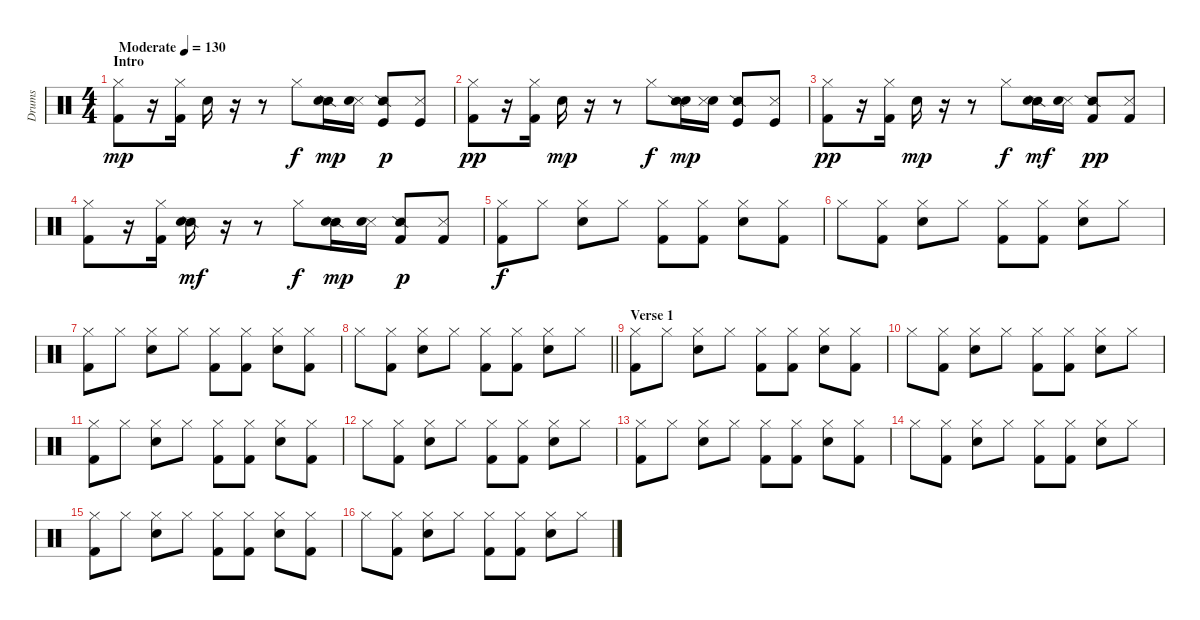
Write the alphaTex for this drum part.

\track ("Drums" "Drums") {instrument percussion}
\staff {score}
\articulation defaults
\ts (4 4)
\section ("" "Intro")
\tempo (130 "Moderate")
\clef neutral
\ks c
("Hi-Hat (closed)" "Kick (hit) 2").8{dy mp volume 2} r.16 ("Hi-Hat (closed)" "Kick (hit) 2").16{volume 13} "Electric Snare (hit)".16 r.16 r.8 "Hi-Hat (closed)".8{dy f} ("Snare (side stick) 2" "Electric Snare (hit)").16{dy mp} ("Snare (side stick) 3" "Electric Snare (hit)").16 ("Snare (side stick) 2" "Kick (hit)").8{dy p} ("Snare (side stick) 3" "Kick (hit)").8 |
("Hi-Hat (closed)" "Kick (hit) 2").8{dy pp} r.16 ("Hi-Hat (closed)" "Kick (hit) 2").16 "Electric Snare (hit)".16{dy mp} r.16 r.8 "Hi-Hat (closed)".8{dy f} ("Electric Snare (hit)" "Snare (side stick) 2").16{dy mp} ("Electric Snare (hit)" "Snare (side stick) 3").16 ("Kick (hit)" "Snare (side stick) 2").8 ("Kick (hit)" "Snare (side stick) 3").8 |
("Hi-Hat (closed)" "Kick (hit) 2").8{dy pp} r.16 ("Hi-Hat (closed)" "Kick (hit) 2").16 "Electric Snare (hit)".16{dy mp} r.16 r.8 "Hi-Hat (closed)".8{dy f} ("Snare (side stick) 2" "Electric Snare (hit)").16{dy mf} ("Metronome (hit)" "Electric Snare (hit)").16 ("Snare (side stick) 2" "Kick (hit) 2").8{dy pp} ("Metronome (hit)" "Kick (hit) 2").8 |
("Hi-Hat (closed)" "Kick (hit) 2").8 r.16 ("Hi-Hat (closed)" "Kick (hit) 2").16 ("Snare (side stick) 2" "Electric Snare (hit)").16{dy mf} r.16 r.8 "Hi-Hat (closed)".8{dy f} ("Snare (side stick) 2" "Electric Snare (hit)").16{dy mp} ("Snare (side stick) 3" "Electric Snare (hit)").16 ("Snare (side stick) 2" "Kick (hit) 2").8{dy p} ("Snare (side stick) 3" "Kick (hit) 2").8 |
("Hi-Hat (closed)" "Kick (hit) 2").8{dy f} "Hi-Hat (closed)".8 ("Hi-Hat (closed)" "Electric Snare (hit)").8 "Hi-Hat (closed)".8 ("Hi-Hat (closed)" "Kick (hit) 2").8 ("Hi-Hat (closed)" "Kick (hit) 2").8 ("Hi-Hat (closed)" "Electric Snare (hit)").8 ("Hi-Hat (closed)" "Kick (hit) 2").8 |
"Hi-Hat (closed)".8 ("Hi-Hat (closed)" "Kick (hit) 2").8 ("Hi-Hat (closed)" "Electric Snare (hit)").8 "Hi-Hat (closed)".8 ("Hi-Hat (closed)" "Kick (hit) 2").8 ("Hi-Hat (closed)" "Kick (hit) 2").8 ("Hi-Hat (closed)" "Electric Snare (hit)").8 "Hi-Hat (closed)".8 |
("Hi-Hat (closed)" "Kick (hit) 2").8 "Hi-Hat (closed)".8 ("Hi-Hat (closed)" "Electric Snare (hit)").8 "Hi-Hat (closed)".8 ("Hi-Hat (closed)" "Kick (hit) 2").8 ("Hi-Hat (closed)" "Kick (hit) 2").8 ("Hi-Hat (closed)" "Electric Snare (hit)").8 ("Hi-Hat (closed)" "Kick (hit) 2").8 |
\barLineRight lightlight "Hi-Hat (closed)".8
("Hi-Hat (closed)" "Kick (hit) 2").8 ("Hi-Hat (closed)" "Electric Snare (hit)").8 "Hi-Hat (closed)".8 ("Hi-Hat (closed)" "Kick (hit) 2").8 ("Hi-Hat (closed)" "Kick (hit) 2").8 ("Hi-Hat (closed)" "Electric Snare (hit)").8 "Hi-Hat (closed)".8 |
\section ("" "Verse 1")
("Hi-Hat (closed)" "Kick (hit) 2").8 "Hi-Hat (closed)".8 ("Hi-Hat (closed)" "Electric Snare (hit)").8 "Hi-Hat (closed)".8 ("Hi-Hat (closed)" "Kick (hit) 2").8 ("Hi-Hat (closed)" "Kick (hit) 2").8 ("Hi-Hat (closed)" "Electric Snare (hit)").8 ("Hi-Hat (closed)" "Kick (hit) 2").8 |
"Hi-Hat (closed)".8 ("Hi-Hat (closed)" "Kick (hit) 2").8 ("Hi-Hat (closed)" "Electric Snare (hit)").8 "Hi-Hat (closed)".8 ("Hi-Hat (closed)" "Kick (hit) 2").8 ("Hi-Hat (closed)" "Kick (hit) 2").8 ("Hi-Hat (closed)" "Electric Snare (hit)").8 "Hi-Hat (closed)".8 |
("Hi-Hat (closed)" "Kick (hit) 2").8 "Hi-Hat (closed)".8 ("Hi-Hat (closed)" "Electric Snare (hit)").8 "Hi-Hat (closed)".8 ("Hi-Hat (closed)" "Kick (hit) 2").8 ("Hi-Hat (closed)" "Kick (hit) 2").8 ("Hi-Hat (closed)" "Electric Snare (hit)").8 ("Hi-Hat (closed)" "Kick (hit) 2").8 |
"Hi-Hat (closed)".8 ("Hi-Hat (closed)" "Kick (hit) 2").8 ("Hi-Hat (closed)" "Electric Snare (hit)").8 "Hi-Hat (closed)".8 ("Hi-Hat (closed)" "Kick (hit) 2").8 ("Hi-Hat (closed)" "Kick (hit) 2").8 ("Hi-Hat (closed)" "Electric Snare (hit)").8 "Hi-Hat (closed)".8 |
("Hi-Hat (closed)" "Kick (hit) 2").8 "Hi-Hat (closed)".8 ("Hi-Hat (closed)" "Electric Snare (hit)").8 "Hi-Hat (closed)".8 ("Hi-Hat (closed)" "Kick (hit) 2").8 ("Hi-Hat (closed)" "Kick (hit) 2").8 ("Hi-Hat (closed)" "Electric Snare (hit)").8 ("Hi-Hat (closed)" "Kick (hit) 2").8 |
"Hi-Hat (closed)".8 ("Hi-Hat (closed)" "Kick (hit) 2").8 ("Hi-Hat (closed)" "Electric Snare (hit)").8 "Hi-Hat (closed)".8 ("Hi-Hat (closed)" "Kick (hit) 2").8 ("Hi-Hat (closed)" "Kick (hit) 2").8 ("Hi-Hat (closed)" "Electric Snare (hit)").8 "Hi-Hat (closed)".8 |
("Hi-Hat (closed)" "Kick (hit) 2").8 "Hi-Hat (closed)".8 ("Hi-Hat (closed)" "Electric Snare (hit)").8 "Hi-Hat (closed)".8 ("Hi-Hat (closed)" "Kick (hit) 2").8 ("Hi-Hat (closed)" "Kick (hit) 2").8 ("Hi-Hat (closed)" "Electric Snare (hit)").8 ("Hi-Hat (closed)" "Kick (hit) 2").8 |
"Hi-Hat (closed)".8 ("Hi-Hat (closed)" "Kick (hit) 2").8 ("Hi-Hat (closed)" "Electric Snare (hit)").8 "Hi-Hat (closed)".8 ("Hi-Hat (closed)" "Kick (hit) 2").8 ("Hi-Hat (closed)" "Kick (hit) 2").8 ("Hi-Hat (closed)" "Electric Snare (hit)").8 "Hi-Hat (closed)".8
